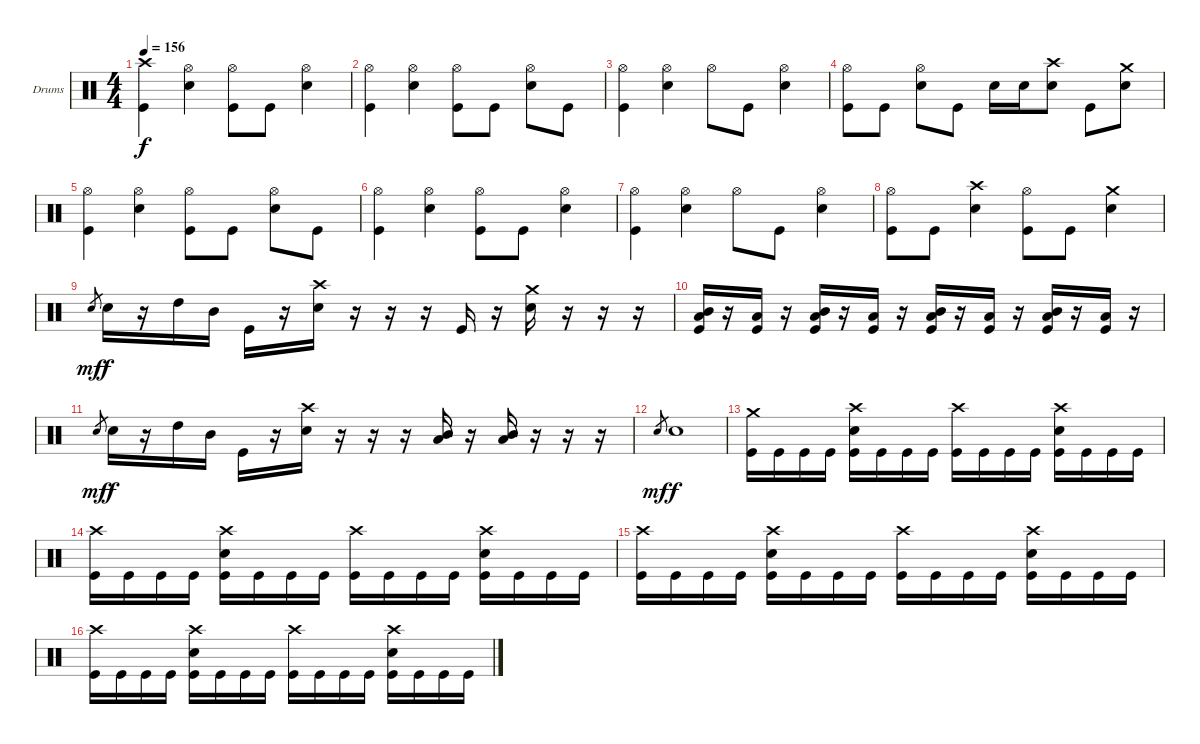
\bracketExtendMode groupsimilarinstruments
\firstSystemTrackNameOrientation horizontal
\otherSystemsTrackNameOrientation horizontal
\track ("Drumkit" "Drums") {instrument percussion}
\staff {score}
\articulation defaults
\ts (4 4)
\tempo 156
\clef neutral
\ks c
("Crash high (hit)" "Kick (hit)").4{dy f} ("Hi-Hat (open)" "Snare (hit) 2").4 ("Hi-Hat (open)" "Kick (hit)").8 "Kick (hit)".8 ("Hi-Hat (open)" "Snare (hit) 2").4 |
("Hi-Hat (open)" "Kick (hit)").4 ("Hi-Hat (open)" "Snare (hit) 2").4 ("Hi-Hat (open)" "Kick (hit)").8 "Kick (hit)".8 ("Hi-Hat (open)" "Snare (hit) 2").8 "Kick (hit)".8 |
("Hi-Hat (open)" "Kick (hit)").4 ("Hi-Hat (open)" "Snare (hit) 2").4 "Hi-Hat (open)".8 "Kick (hit)".8 ("Hi-Hat (open)" "Snare (hit) 2").4 |
("Hi-Hat (open)" "Kick (hit)").8 "Kick (hit)".8 ("Hi-Hat (open)" "Snare (hit) 2").8 "Kick (hit)".8 "Snare (hit) 2".16 "Snare (hit) 2".16 ("Crash high (hit)" "Snare (hit) 2").8 "Kick (hit)".8 ("Crash medium (hit)" "Snare (hit) 2").8 |
("Hi-Hat (open)" "Kick (hit)").4 ("Hi-Hat (open)" "Snare (hit) 2").4 ("Hi-Hat (open)" "Kick (hit)").8 "Kick (hit)".8 ("Hi-Hat (open)" "Snare (hit) 2").8 "Kick (hit)".8 |
("Hi-Hat (open)" "Kick (hit)").4 ("Hi-Hat (open)" "Snare (hit) 2").4 ("Hi-Hat (open)" "Kick (hit)").8 "Kick (hit)".8 ("Hi-Hat (open)" "Snare (hit) 2").4 |
("Hi-Hat (open)" "Kick (hit)").4 ("Hi-Hat (open)" "Snare (hit) 2").4 "Hi-Hat (open)".8 "Kick (hit)".8 ("Hi-Hat (open)" "Snare (hit) 2").4 |
("Hi-Hat (open)" "Kick (hit)").8 "Kick (hit)".8 ("Crash high (hit)" "Snare (hit) 2").4 ("Hi-Hat (open)" "Kick (hit)").8 "Kick (hit)".8 ("Crash medium (hit)" "Snare (hit) 2").4 |
"Snare (hit) 2".8{gr dy mf} "Snare (hit) 2".16{dy f} r.16 "High Tom (hit)".16 "Mid Tom (hit)".16 "Kick (hit)".16 r.16 ("Crash high (hit)" "Snare (hit) 2").16 r.16 r.16 r.16 "Kick (hit)".16 r.16 ("Crash medium (hit)" "Snare (hit) 2").16 r.16 r.16 r.16 |
("Low Tom (hit)" "Mid Tom (hit)" "Kick (hit)").16 r.16 ("Low Tom (hit)" "Kick (hit)").16 r.16 ("Low Tom (hit)" "Mid Tom (hit)" "Kick (hit)").16 r.16 ("Low Tom (hit)" "Kick (hit)").16 r.16 ("Low Tom (hit)" "Mid Tom (hit)" "Kick (hit)").16 r.16 ("Low Tom (hit)" "Kick (hit)").16 r.16 ("Low Tom (hit)" "Mid Tom (hit)" "Kick (hit)").16 r.16 ("Low Tom (hit)" "Kick (hit)").16 r.16 |
"Snare (hit) 2".8{gr dy mf} "Snare (hit) 2".16{dy f} r.16 "High Tom (hit)".16 "Mid Tom (hit)".16 "Kick (hit)".16 r.16 ("Crash high (hit)" "Snare (hit) 2").16 r.16 r.16 r.16 ("Mid Tom (hit)" "Low Tom (hit)").16 r.16 ("Mid Tom (hit)" "Low Tom (hit)").16 r.16 r.16 r.16 |
"Snare (hit) 2".8{gr dy mf} "Snare (hit) 2".1{dy f} |
("Crash medium (hit)" "Kick (hit)").16 "Kick (hit)".16 "Kick (hit)".16 "Kick (hit)".16 ("Crash high (hit)" "Snare (hit) 2" "Kick (hit)").16 "Kick (hit)".16 "Kick (hit)".16 "Kick (hit)".16 ("Crash high (hit)" "Kick (hit)").16 "Kick (hit)".16 "Kick (hit)".16 "Kick (hit)".16 ("Crash high (hit)" "Snare (hit) 2" "Kick (hit)").16 "Kick (hit)".16 "Kick (hit)".16 "Kick (hit)".16 |
("Crash high (hit)" "Kick (hit)").16 "Kick (hit)".16 "Kick (hit)".16 "Kick (hit)".16 ("Crash high (hit)" "Snare (hit) 2" "Kick (hit)").16 "Kick (hit)".16 "Kick (hit)".16 "Kick (hit)".16 ("Crash high (hit)" "Kick (hit)").16 "Kick (hit)".16 "Kick (hit)".16 "Kick (hit)".16 ("Crash high (hit)" "Snare (hit) 2" "Kick (hit)").16 "Kick (hit)".16 "Kick (hit)".16 "Kick (hit)".16 |
("Crash high (hit)" "Kick (hit)").16 "Kick (hit)".16 "Kick (hit)".16 "Kick (hit)".16 ("Crash high (hit)" "Snare (hit) 2" "Kick (hit)").16 "Kick (hit)".16 "Kick (hit)".16 "Kick (hit)".16 ("Crash high (hit)" "Kick (hit)").16 "Kick (hit)".16 "Kick (hit)".16 "Kick (hit)".16 ("Crash high (hit)" "Snare (hit) 2" "Kick (hit)").16 "Kick (hit)".16 "Kick (hit)".16 "Kick (hit)".16 |
("Crash high (hit)" "Kick (hit)").16 "Kick (hit)".16 "Kick (hit)".16 "Kick (hit)".16 ("Crash high (hit)" "Snare (hit) 2" "Kick (hit)").16 "Kick (hit)".16 "Kick (hit)".16 "Kick (hit)".16 ("Crash high (hit)" "Kick (hit)").16 "Kick (hit)".16 "Kick (hit)".16 "Kick (hit)".16 ("Crash high (hit)" "Snare (hit) 2" "Kick (hit)").16 "Kick (hit)".16 "Kick (hit)".16 "Kick (hit)".16
